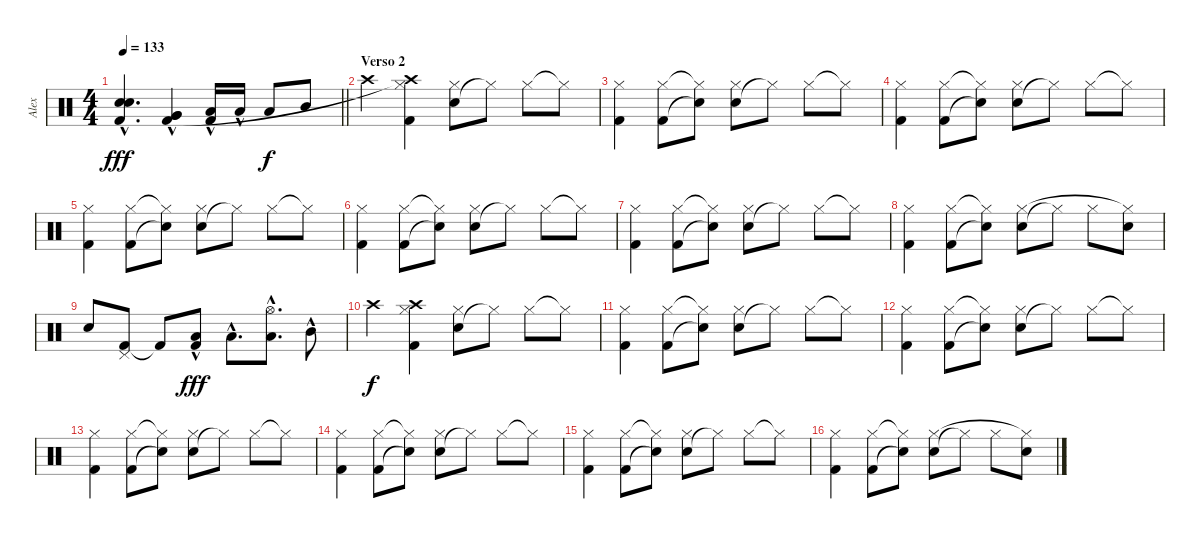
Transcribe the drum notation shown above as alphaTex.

\track ("Alex" "Alex") {instrument percussion}
\staff {score}
\articulation defaults
\ts (4 4)
\tempo 133
\clef neutral
\barLineRight lightlight
\ks c
("Electric Snare (hit)"{hac} "Electric Snare (hit)"{hac} "Kick (hit) 2").4{d dy fff} ("Very Low Tom (hit)"{hac} "Very Low Tom (hit)" "Kick (hit) 2").4 ("Low Tom (hit)"{hac} "Kick (hit) 2").16 "Low Tom (hit)"{hac}.16 "Low Tom (hit)".8{dy f} "Mid Tom (hit)".8 |
\section ("" "Verso 2")
"Crash high (hit)".4 ("Kick (hit) 2" "Hi-Hat (closed)" "Crash high (hit)"{t}).4 ("Electric Snare (hit)" "Hi-Hat (closed)").8 "Hi-Hat (closed)"{t}.8 "Hi-Hat (closed)".8 "Hi-Hat (closed)"{t}.8 |
("Kick (hit) 2" "Hi-Hat (closed)").4 ("Kick (hit) 2" "Hi-Hat (closed)").8 ("Electric Snare (hit)"{t} "Hi-Hat (closed)"{t}).8 ("Electric Snare (hit)" "Hi-Hat (closed)").8 "Hi-Hat (closed)"{t}.8 "Hi-Hat (closed)".8 "Hi-Hat (closed)"{t}.8 |
("Kick (hit) 2" "Hi-Hat (closed)").4 ("Kick (hit) 2" "Hi-Hat (closed)").8 ("Electric Snare (hit)"{t} "Hi-Hat (closed)"{t}).8 ("Electric Snare (hit)" "Hi-Hat (closed)").8 "Hi-Hat (closed)"{t}.8 "Hi-Hat (closed)".8 "Hi-Hat (closed)"{t}.8 |
("Kick (hit) 2" "Hi-Hat (closed)").4 ("Kick (hit) 2" "Hi-Hat (closed)").8 ("Electric Snare (hit)"{t} "Hi-Hat (closed)"{t}).8 ("Electric Snare (hit)" "Hi-Hat (closed)").8 "Hi-Hat (closed)"{t}.8 "Hi-Hat (closed)".8 "Hi-Hat (closed)"{t}.8 |
("Kick (hit) 2" "Hi-Hat (closed)").4 ("Kick (hit) 2" "Hi-Hat (closed)").8 ("Electric Snare (hit)"{t} "Hi-Hat (closed)"{t}).8 ("Electric Snare (hit)" "Hi-Hat (closed)").8 "Hi-Hat (closed)"{t}.8 "Hi-Hat (closed)".8 "Hi-Hat (closed)"{t}.8 |
("Kick (hit) 2" "Hi-Hat (closed)").4 ("Kick (hit) 2" "Hi-Hat (closed)").8 ("Electric Snare (hit)"{t} "Hi-Hat (closed)"{t}).8 ("Electric Snare (hit)" "Hi-Hat (closed)").8 "Hi-Hat (closed)"{t}.8 "Hi-Hat (closed)".8 "Hi-Hat (closed)"{t}.8 |
("Kick (hit) 2" "Hi-Hat (closed)").4 ("Kick (hit) 2" "Hi-Hat (closed)").8 ("Electric Snare (hit)"{t} "Hi-Hat (closed)"{t}).8 ("Electric Snare (hit)" "Hi-Hat (closed)").8 "Hi-Hat (closed)"{t}.8 "Hi-Hat (closed)".8 ("Electric Snare (hit)" "Hi-Hat (closed)"{t}).8 |
"Electric Snare (hit)".8 ("Kick (hit) 2" "Pedal Hi-Hat (hit)").8 "Kick (hit) 2"{t}.8 ("Low Floor Tom (hit)"{hac} "Kick (hit) 2").8{dy fff} "Low Tom (hit)"{hac}.8{d} ("Low Tom (hit)"{hac} "Hi-Hat (open)").8{d} "Mid Tom (hit)"{hac}.8 |
"Crash high (hit)".4{dy f} ("Kick (hit) 2" "Hi-Hat (closed)" "Crash high (hit)").4 ("Electric Snare (hit)" "Hi-Hat (closed)").8 "Hi-Hat (closed)"{t}.8 "Hi-Hat (closed)".8 "Hi-Hat (closed)"{t}.8 |
("Kick (hit) 2" "Hi-Hat (closed)").4 ("Kick (hit) 2" "Hi-Hat (closed)").8 ("Electric Snare (hit)"{t} "Hi-Hat (closed)"{t}).8 ("Electric Snare (hit)" "Hi-Hat (closed)").8 "Hi-Hat (closed)"{t}.8 "Hi-Hat (closed)".8 "Hi-Hat (closed)"{t}.8 |
("Kick (hit) 2" "Hi-Hat (closed)").4 ("Kick (hit) 2" "Hi-Hat (closed)").8 ("Electric Snare (hit)"{t} "Hi-Hat (closed)"{t}).8 ("Electric Snare (hit)" "Hi-Hat (closed)").8 "Hi-Hat (closed)"{t}.8 "Hi-Hat (closed)".8 "Hi-Hat (closed)"{t}.8 |
("Kick (hit) 2" "Hi-Hat (closed)").4 ("Kick (hit) 2" "Hi-Hat (closed)").8 ("Electric Snare (hit)"{t} "Hi-Hat (closed)"{t}).8 ("Electric Snare (hit)" "Hi-Hat (closed)").8 "Hi-Hat (closed)"{t}.8 "Hi-Hat (closed)".8 "Hi-Hat (closed)"{t}.8 |
("Kick (hit) 2" "Hi-Hat (closed)").4 ("Kick (hit) 2" "Hi-Hat (closed)").8 ("Electric Snare (hit)"{t} "Hi-Hat (closed)"{t}).8 ("Electric Snare (hit)" "Hi-Hat (closed)").8 "Hi-Hat (closed)"{t}.8 "Hi-Hat (closed)".8 "Hi-Hat (closed)"{t}.8 |
("Kick (hit) 2" "Hi-Hat (closed)").4 ("Kick (hit) 2" "Hi-Hat (closed)").8 ("Electric Snare (hit)"{t} "Hi-Hat (closed)"{t}).8 ("Electric Snare (hit)" "Hi-Hat (closed)").8 "Hi-Hat (closed)"{t}.8 "Hi-Hat (closed)".8 "Hi-Hat (closed)"{t}.8 |
("Kick (hit) 2" "Hi-Hat (closed)").4 ("Kick (hit) 2" "Hi-Hat (closed)").8 ("Electric Snare (hit)"{t} "Hi-Hat (closed)"{t}).8 ("Electric Snare (hit)" "Hi-Hat (closed)").8 "Hi-Hat (closed)"{t}.8 "Hi-Hat (closed)".8 ("Electric Snare (hit)" "Hi-Hat (closed)"{t}).8
